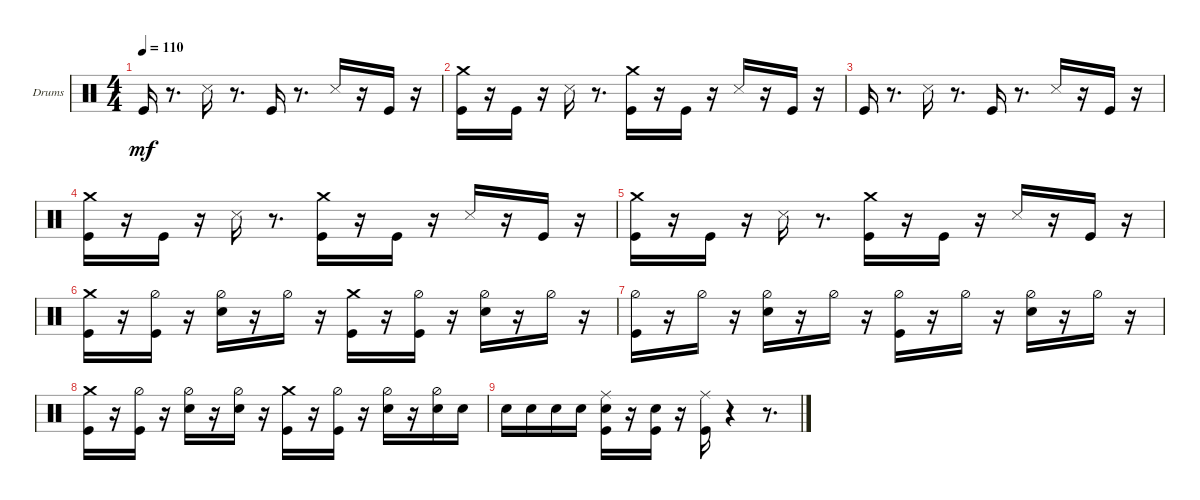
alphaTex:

\defaultSystemsLayout 4
\bracketExtendMode groupsimilarinstruments
\firstSystemTrackNameOrientation horizontal
\otherSystemsTrackNameOrientation horizontal
\track ("Барабаны" "Drums") {instrument percussion}
\staff {score}
\articulation defaults
\ts (4 4)
\tempo 110
\clef neutral
\ks c "Kick (hit)".16{dy mf}
r.8{d} "Snare (side stick) 3".16 r.8{d} "Kick (hit)".16 r.8{d} "Snare (side stick) 3".16 r.16 "Kick (hit)".16 r.16 |
("Kick (hit)" "Crash medium (hit)").16 r.16 "Kick (hit)".16 r.16 "Snare (side stick) 3".16 r.8{d} ("Kick (hit)" "Crash medium (hit)").16 r.16 "Kick (hit)".16 r.16 "Snare (side stick) 3".16 r.16 "Kick (hit)".16 r.16 |
"Kick (hit)".16 r.8{d} "Snare (side stick) 3".16 r.8{d} "Kick (hit)".16 r.8{d} "Snare (side stick) 3".16 r.16 "Kick (hit)".16 r.16 |
("Kick (hit)" "Crash medium (hit)").16 r.16 "Kick (hit)".16 r.16 "Snare (side stick) 3".16 r.8{d} ("Kick (hit)" "Crash medium (hit)").16 r.16 "Kick (hit)".16 r.16 "Snare (side stick) 3".16 r.16 "Kick (hit)".16 r.16 |
("Kick (hit)" "Crash medium (hit)").16 r.16 "Kick (hit)".16 r.16 "Snare (side stick) 3".16 r.8{d} ("Kick (hit)" "Crash medium (hit)").16 r.16 "Kick (hit)".16 r.16 "Snare (side stick) 3".16 r.16 "Kick (hit)".16 r.16 |
("Kick (hit)" "Crash medium (hit)").16 r.16 ("Kick (hit)" "Hi-Hat (half)").16 r.16 ("Hi-Hat (half)" "Snare (hit) 2").16 r.16 "Hi-Hat (half)".16 r.16 ("Kick (hit)" "Crash medium (hit)").16 r.16 ("Kick (hit)" "Hi-Hat (half)").16 r.16 ("Hi-Hat (half)" "Snare (hit) 2").16 r.16 "Hi-Hat (half)".16 r.16 |
("Kick (hit)" "Hi-Hat (half)").16 r.16 "Hi-Hat (half)".16 r.16 ("Hi-Hat (half)" "Snare (hit) 2").16 r.16 "Hi-Hat (half)".16 r.16 ("Kick (hit)" "Hi-Hat (half)").16 r.16 "Hi-Hat (half)".16 r.16 ("Hi-Hat (half)" "Snare (hit) 2").16 r.16 "Hi-Hat (half)".16 r.16 |
("Kick (hit)" "Crash medium (hit)").16 r.16 ("Kick (hit)" "Hi-Hat (half)").16 r.16 ("Hi-Hat (half)" "Snare (hit) 2").16 r.16 ("Hi-Hat (half)" "Snare (hit) 2").16 r.16 ("Kick (hit)" "Crash medium (hit)").16 r.16 ("Kick (hit)" "Hi-Hat (half)").16 r.16 ("Hi-Hat (half)" "Snare (hit) 2").16 r.16 ("Hi-Hat (half)" "Snare (hit) 2").16 "Snare (hit) 2".16 |
"Snare (hit) 2".16 "Snare (hit) 2".16 "Snare (hit) 2".16 "Snare (hit) 2".16 ("Kick (hit)" "Ride (middle)" "Snare (hit) 2").16 r.16 ("Kick (hit)" "Snare (hit) 2").16 r.16 ("Kick (hit)" "Ride (middle)").16 r.4 r.8{d}
